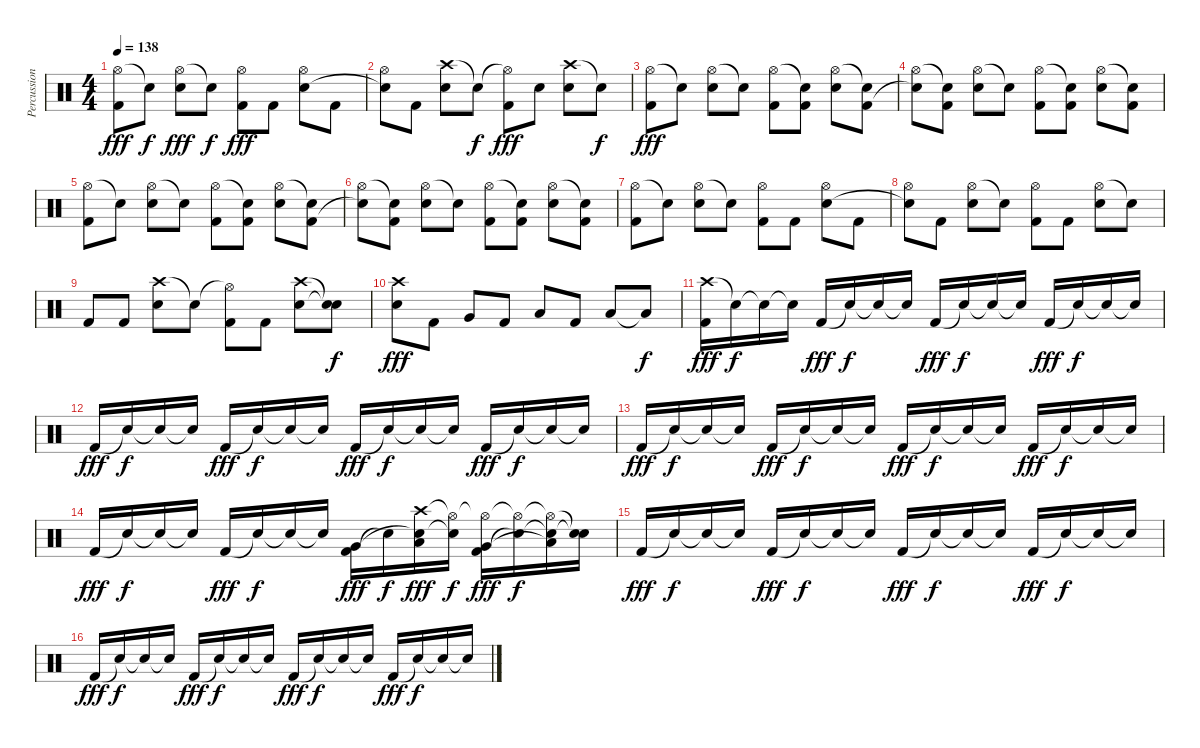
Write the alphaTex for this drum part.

\track ("Percussion" "Percussion") {instrument percussion}
\staff {score}
\articulation defaults
\ts (4 4)
\tempo 138
\clef neutral
\ks c
("Hi-Hat (open)" "Kick (hit) 2").8{dy fff} "Snare (hit)"{t}.8{dy f} ("Hi-Hat (open)" "Electric Snare (hit)").8{dy fff} "Snare (hit)"{t}.8{dy f} ("Hi-Hat (open)" "Kick (hit) 2").8{dy fff} "Kick (hit) 2".8 ("Hi-Hat (open)" "Electric Snare (hit)").8 "Kick (hit) 2".8 |
("Hi-Hat (open)" "Snare (hit)"{t}).8 "Kick (hit) 2".8 ("Crash high (hit)" "Electric Snare (hit)").8 "Snare (hit)"{t}.8{dy f} ("Hi-Hat (open)"{t} "Kick (hit) 2").8{dy fff} "Electric Snare (hit)".8 ("Crash high (hit)" "Electric Snare (hit)").8 "Snare (hit)"{t}.8{dy f} |
("Hi-Hat (open)" "Kick (hit) 2").8{dy fff} "Snare (hit)"{t}.8 ("Hi-Hat (open)" "Electric Snare (hit)").8 "Snare (hit)"{t}.8 ("Hi-Hat (open)" "Kick (hit) 2").8 ("Snare (hit)"{t} "Kick (hit) 2").8 ("Hi-Hat (open)" "Electric Snare (hit)").8 ("Snare (hit)"{t} "Kick (hit) 2").8 |
("Hi-Hat (open)" "Snare (hit)"{t}).8 ("Snare (hit)"{t} "Kick (hit) 2").8 ("Hi-Hat (open)" "Electric Snare (hit)").8 "Snare (hit)"{t}.8 ("Hi-Hat (open)" "Kick (hit) 2").8 ("Snare (hit)"{t} "Kick (hit) 2").8 ("Hi-Hat (open)" "Electric Snare (hit)").8 ("Snare (hit)"{t} "Kick (hit) 2").8 |
("Hi-Hat (open)" "Kick (hit) 2").8 "Snare (hit)"{t}.8 ("Hi-Hat (open)" "Electric Snare (hit)").8 "Snare (hit)"{t}.8 ("Hi-Hat (open)" "Kick (hit) 2").8 ("Snare (hit)"{t} "Kick (hit) 2").8 ("Hi-Hat (open)" "Electric Snare (hit)").8 ("Snare (hit)"{t} "Kick (hit) 2").8 |
("Hi-Hat (open)" "Snare (hit)"{t}).8 ("Snare (hit)"{t} "Kick (hit) 2").8 ("Hi-Hat (open)" "Electric Snare (hit)").8 "Snare (hit)"{t}.8 ("Hi-Hat (open)" "Kick (hit) 2").8 ("Snare (hit)"{t} "Kick (hit) 2").8 ("Hi-Hat (open)" "Electric Snare (hit)").8 ("Snare (hit)"{t} "Kick (hit) 2").8 |
("Hi-Hat (open)" "Kick (hit) 2").8 "Snare (hit)"{t}.8 ("Hi-Hat (open)" "Electric Snare (hit)").8 "Snare (hit)"{t}.8 ("Hi-Hat (open)" "Kick (hit) 2").8 "Kick (hit) 2".8 ("Hi-Hat (open)" "Electric Snare (hit)").8 "Kick (hit) 2".8 |
("Hi-Hat (open)" "Snare (hit)"{t}).8 "Kick (hit) 2".8 ("Hi-Hat (open)" "Electric Snare (hit)").8 "Snare (hit)"{t}.8 ("Hi-Hat (open)" "Kick (hit) 2").8 "Kick (hit) 2".8 ("Hi-Hat (open)" "Electric Snare (hit)").8 "Snare (hit)"{t}.8 |
"Kick (hit) 2".8 "Kick (hit) 2".8 ("Crash high (hit)" "Electric Snare (hit)").8 "Snare (hit)"{t}.8 ("Hi-Hat (open)"{t} "Kick (hit) 2").8 "Kick (hit) 2".8 ("Crash high (hit)" "Electric Snare (hit)").8 ("Snare (hit)"{t} "Snare (hit)"{t}).8{dy f} |
("Crash high (hit)" "Electric Snare (hit)").8{dy fff} "Kick (hit) 2".8 "Very Low Tom (hit)".8 "Kick (hit) 2".8 "Low Floor Tom (hit)".8 "Kick (hit) 2".8 "Low Floor Tom (hit)".8 "Low Floor Tom (hit)"{t}.8{dy f} |
("Crash high (hit)" "Kick (hit) 2").16{dy fff} "Snare (hit)"{t}.16{dy f} "Snare (hit)"{t}.16 "Snare (hit)"{t}.16 "Kick (hit) 2".16{dy fff} "Snare (hit)"{t}.16{dy f} "Snare (hit)"{t}.16 "Snare (hit)"{t}.16 "Kick (hit) 2".16{dy fff} "Snare (hit)"{t}.16{dy f} "Snare (hit)"{t}.16 "Snare (hit)"{t}.16 "Kick (hit) 2".16{dy fff} "Snare (hit)"{t}.16{dy f} "Snare (hit)"{t}.16 "Snare (hit)"{t}.16 |
"Kick (hit) 2".16{dy fff} "Snare (hit)"{t}.16{dy f} "Snare (hit)"{t}.16 "Snare (hit)"{t}.16 "Kick (hit) 2".16{dy fff} "Snare (hit)"{t}.16{dy f} "Snare (hit)"{t}.16 "Snare (hit)"{t}.16 "Kick (hit) 2".16{dy fff} "Snare (hit)"{t}.16{dy f} "Snare (hit)"{t}.16 "Snare (hit)"{t}.16 "Kick (hit) 2".16{dy fff} "Snare (hit)"{t}.16{dy f} "Snare (hit)"{t}.16 "Snare (hit)"{t}.16 |
"Kick (hit) 2".16{dy fff} "Snare (hit)"{t}.16{dy f} "Snare (hit)"{t}.16 "Snare (hit)"{t}.16 "Kick (hit) 2".16{dy fff} "Snare (hit)"{t}.16{dy f} "Snare (hit)"{t}.16 "Snare (hit)"{t}.16 "Kick (hit) 2".16{dy fff} "Snare (hit)"{t}.16{dy f} "Snare (hit)"{t}.16 "Snare (hit)"{t}.16 "Kick (hit) 2".16{dy fff} "Snare (hit)"{t}.16{dy f} "Snare (hit)"{t}.16 "Snare (hit)"{t}.16 |
"Kick (hit) 2".16{dy fff} "Snare (hit)"{t}.16{dy f} "Snare (hit)"{t}.16 "Snare (hit)"{t}.16 "Kick (hit) 2".16{dy fff} "Snare (hit)"{t}.16{dy f} "Snare (hit)"{t}.16 "Snare (hit)"{t}.16 ("Kick (hit) 2" "Very Low Tom (hit)").16{dy fff} "Snare (hit)"{t}.16{dy f} ("Crash high (hit)" "Snare (hit)"{t} "Low Floor Tom (hit)").16{dy fff} ("Hi-Hat (open)"{t} "Snare (hit)"{t}).16{dy f} ("Hi-Hat (open)"{t} "Kick (hit) 2" "Very Low Tom (hit)").16{dy fff} ("Hi-Hat (open)"{t} "Snare (hit)"{t}).16{dy f} ("Hi-Hat (open)"{t} "Snare (hit)"{t} "Low Floor Tom (hit)"{t}).16 ("Snare (hit)"{t} "Snare (hit)"{t}).16 |
"Kick (hit) 2".16{dy fff} "Snare (hit)"{t}.16{dy f} "Snare (hit)"{t}.16 "Snare (hit)"{t}.16 "Kick (hit) 2".16{dy fff} "Snare (hit)"{t}.16{dy f} "Snare (hit)"{t}.16 "Snare (hit)"{t}.16 "Kick (hit) 2".16{dy fff} "Snare (hit)"{t}.16{dy f} "Snare (hit)"{t}.16 "Snare (hit)"{t}.16 "Kick (hit) 2".16{dy fff} "Snare (hit)"{t}.16{dy f} "Snare (hit)"{t}.16 "Snare (hit)"{t}.16 |
"Kick (hit) 2".16{dy fff} "Snare (hit)"{t}.16{dy f} "Snare (hit)"{t}.16 "Snare (hit)"{t}.16 "Kick (hit) 2".16{dy fff} "Snare (hit)"{t}.16{dy f} "Snare (hit)"{t}.16 "Snare (hit)"{t}.16 "Kick (hit) 2".16{dy fff} "Snare (hit)"{t}.16{dy f} "Snare (hit)"{t}.16 "Snare (hit)"{t}.16 "Kick (hit) 2".16{dy fff} "Snare (hit)"{t}.16{dy f} "Snare (hit)"{t}.16 "Snare (hit)"{t}.16
